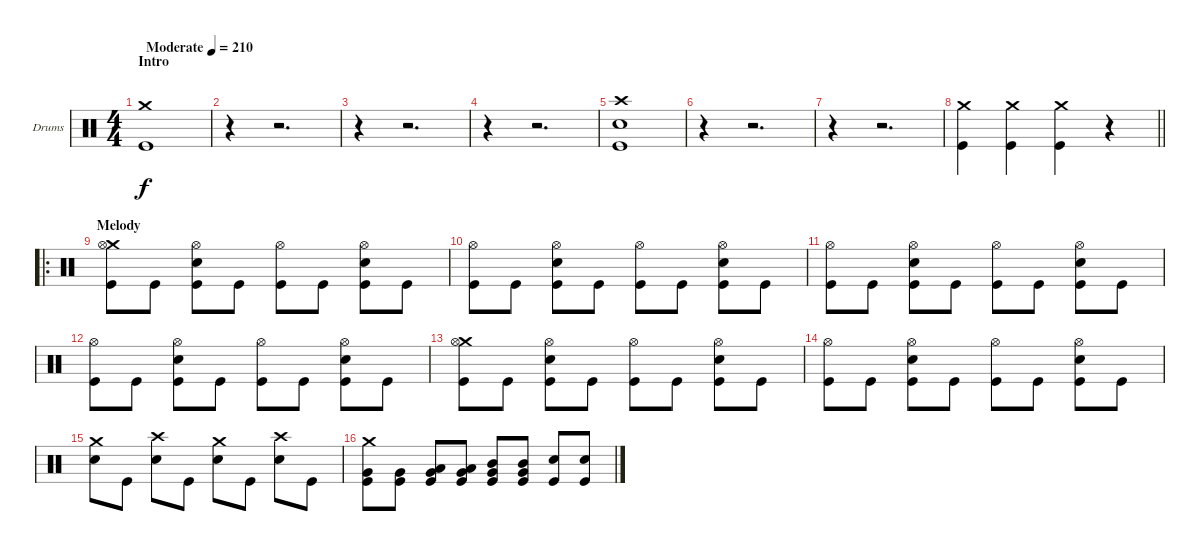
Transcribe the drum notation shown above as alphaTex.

\bracketExtendMode groupsimilarinstruments
\firstSystemTrackNameOrientation horizontal
\otherSystemsTrackNameOrientation horizontal
\track ("Drumkit" "Drums") {instrument percussion}
\staff {score}
\articulation defaults
\ts (4 4)
\beaming (8 2 2 2 2)
\section ("" "Intro")
\tempo (210 "Moderate")
\clef neutral
\ks c
("Crash medium (hit)" "Kick (hit)").1{dy f} |
r.4 r.2{d} |
r.4 r.2{d} |
r.4 r.2{d} |
("Crash high (hit)" "Snare (hit) 2" "Kick (hit)").1 |
r.4 r.2{d} |
r.4 r.2{d} |
\barLineRight lightlight
("Crash medium (hit)" "Kick (hit)").4 ("Crash medium (hit)" "Kick (hit)").4 ("Crash medium (hit)" "Kick (hit)").4 r.4 |
\ro
\section ("" "Melody")
("Crash medium (hit)" "Hi-Hat (open)" "Kick (hit)").8 "Kick (hit)".8 ("Hi-Hat (open)" "Snare (hit) 2" "Kick (hit)").8 "Kick (hit)".8 ("Hi-Hat (open)" "Kick (hit)").8 "Kick (hit)".8 ("Hi-Hat (open)" "Snare (hit) 2" "Kick (hit)").8 "Kick (hit)".8 |
("Hi-Hat (open)" "Kick (hit)").8 "Kick (hit)".8 ("Hi-Hat (open)" "Snare (hit) 2" "Kick (hit)").8 "Kick (hit)".8 ("Hi-Hat (open)" "Kick (hit)").8 "Kick (hit)".8 ("Hi-Hat (open)" "Snare (hit) 2" "Kick (hit)").8 "Kick (hit)".8 |
("Hi-Hat (open)" "Kick (hit)").8 "Kick (hit)".8 ("Hi-Hat (open)" "Snare (hit) 2" "Kick (hit)").8 "Kick (hit)".8 ("Hi-Hat (open)" "Kick (hit)").8 "Kick (hit)".8 ("Hi-Hat (open)" "Snare (hit) 2" "Kick (hit)").8 "Kick (hit)".8 |
("Hi-Hat (open)" "Kick (hit)").8 "Kick (hit)".8 ("Hi-Hat (open)" "Snare (hit) 2" "Kick (hit)").8 "Kick (hit)".8 ("Hi-Hat (open)" "Kick (hit)").8 "Kick (hit)".8 ("Hi-Hat (open)" "Snare (hit) 2" "Kick (hit)").8 "Kick (hit)".8 |
("Crash medium (hit)" "Hi-Hat (open)" "Kick (hit)").8 "Kick (hit)".8 ("Hi-Hat (open)" "Snare (hit) 2" "Kick (hit)").8 "Kick (hit)".8 ("Hi-Hat (open)" "Kick (hit)").8 "Kick (hit)".8 ("Hi-Hat (open)" "Snare (hit) 2" "Kick (hit)").8 "Kick (hit)".8 |
("Hi-Hat (open)" "Kick (hit)").8 "Kick (hit)".8 ("Hi-Hat (open)" "Snare (hit) 2" "Kick (hit)").8 "Kick (hit)".8 ("Hi-Hat (open)" "Kick (hit)").8 "Kick (hit)".8 ("Hi-Hat (open)" "Snare (hit) 2" "Kick (hit)").8 "Kick (hit)".8 |
("Crash medium (hit)" "Snare (hit) 2").8 "Kick (hit)".8 ("Crash high (hit)" "Snare (hit) 2").8 "Kick (hit)".8 ("Crash medium (hit)" "Snare (hit) 2").8 "Kick (hit)".8 ("Crash high (hit)" "Snare (hit) 2").8 "Kick (hit)".8 |
("Crash medium (hit)" "Very Low Tom (hit)" "Kick (hit)").8 ("Very Low Tom (hit)" "Kick (hit)").8 ("Low Tom (hit)" "Very Low Tom (hit)" "Kick (hit)").8 ("Low Tom (hit)" "Very Low Tom (hit)" "Kick (hit)").8 ("Mid Tom (hit)" "Very Low Tom (hit)" "Kick (hit)").8 ("Mid Tom (hit)" "Very Low Tom (hit)" "Kick (hit)").8 ("Snare (hit) 2" "Kick (hit)").8 ("Snare (hit) 2" "Kick (hit)").8
